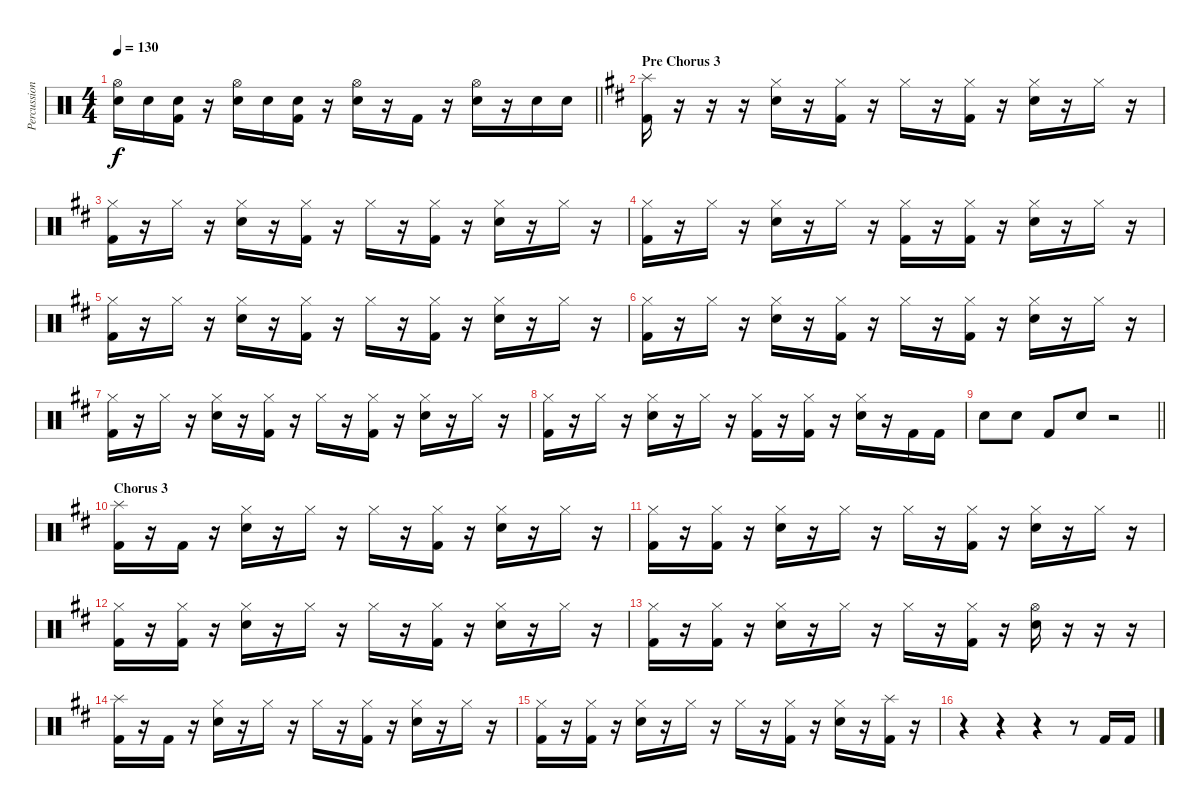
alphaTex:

\track ("Percussioni" "Percussion") {instrument percussion}
\staff {score}
\articulation defaults
\ts (4 4)
\tempo 130
\clef neutral
\barLineRight lightlight
\ks c
("Snare (hit) 2" "Hi-Hat (open)").16{dy f} "Snare (hit) 2".16 ("Snare (hit) 2" "Kick (hit) 2").16 r.16 ("Snare (hit) 2" "Hi-Hat (open)").16 "Snare (hit) 2".16 ("Snare (hit) 2" "Kick (hit) 2").16 r.16 ("Snare (hit) 2" "Hi-Hat (open)").16 r.16 "Kick (hit) 2".16 r.16 ("Snare (hit) 2" "Hi-Hat (open)").16 r.16 "Snare (hit) 2".16 "Snare (hit) 2".16 |
\section ("" "Pre Chorus 3")
\ks d
("Kick (hit) 2" "Splash (hit)").16 r.16 r.16 r.16 ("Snare (hit) 2" "Hi-Hat (closed)").16 r.16 ("Kick (hit) 2" "Hi-Hat (closed)").16 r.16 "Hi-Hat (closed)".16 r.16 ("Kick (hit) 2" "Hi-Hat (closed)").16 r.16 ("Snare (hit) 2" "Hi-Hat (closed)").16 r.16 "Hi-Hat (closed)".16 r.16 |
("Kick (hit) 2" "Hi-Hat (closed)").16 r.16 "Hi-Hat (closed)".16 r.16 ("Snare (hit) 2" "Hi-Hat (closed)").16 r.16 ("Kick (hit) 2" "Hi-Hat (closed)").16 r.16 "Hi-Hat (closed)".16 r.16 ("Kick (hit) 2" "Hi-Hat (closed)").16 r.16 ("Snare (hit) 2" "Hi-Hat (closed)").16 r.16 "Hi-Hat (closed)".16 r.16 |
("Kick (hit) 2" "Hi-Hat (closed)").16 r.16 "Hi-Hat (closed)".16 r.16 ("Snare (hit) 2" "Hi-Hat (closed)").16 r.16 "Hi-Hat (closed)".16 r.16 ("Kick (hit) 2" "Hi-Hat (closed)").16 r.16 ("Kick (hit) 2" "Hi-Hat (closed)").16 r.16 ("Snare (hit) 2" "Hi-Hat (closed)").16 r.16 "Hi-Hat (closed)".16 r.16 |
("Kick (hit) 2" "Hi-Hat (closed)").16 r.16 "Hi-Hat (closed)".16 r.16 ("Snare (hit) 2" "Hi-Hat (closed)").16 r.16 ("Kick (hit) 2" "Hi-Hat (closed)").16 r.16 "Hi-Hat (closed)".16 r.16 ("Kick (hit) 2" "Hi-Hat (closed)").16 r.16 ("Snare (hit) 2" "Hi-Hat (closed)").16 r.16 "Hi-Hat (closed)".16 r.16 |
("Kick (hit) 2" "Hi-Hat (closed)").16 r.16 "Hi-Hat (closed)".16 r.16 ("Snare (hit) 2" "Hi-Hat (closed)").16 r.16 ("Kick (hit) 2" "Hi-Hat (closed)").16 r.16 "Hi-Hat (closed)".16 r.16 ("Kick (hit) 2" "Hi-Hat (closed)").16 r.16 ("Snare (hit) 2" "Hi-Hat (closed)").16 r.16 "Hi-Hat (closed)".16 r.16 |
("Kick (hit) 2" "Hi-Hat (closed)").16 r.16 "Hi-Hat (closed)".16 r.16 ("Snare (hit) 2" "Hi-Hat (closed)").16 r.16 ("Kick (hit) 2" "Hi-Hat (closed)").16 r.16 "Hi-Hat (closed)".16 r.16 ("Kick (hit) 2" "Hi-Hat (closed)").16 r.16 ("Snare (hit) 2" "Hi-Hat (closed)").16 r.16 "Hi-Hat (closed)".16 r.16 |
("Kick (hit) 2" "Hi-Hat (closed)").16 r.16 "Hi-Hat (closed)".16 r.16 ("Snare (hit) 2" "Hi-Hat (closed)").16 r.16 "Hi-Hat (closed)".16 r.16 ("Kick (hit) 2" "Hi-Hat (closed)").16 r.16 ("Kick (hit) 2" "Hi-Hat (closed)").16 r.16 ("Snare (hit) 2" "Hi-Hat (closed)").16 r.16 "Kick (hit) 2".16 "Kick (hit) 2".16 |
\barLineRight lightlight "Snare (hit) 2".8 "Snare (hit) 2".8 "Kick (hit) 2".8 "Snare (hit) 2".8
r.2 |
\section ("" "Chorus 3")
("Kick (hit) 2" "Splash (hit)").16 r.16 "Kick (hit) 2".16 r.16 ("Snare (hit) 2" "Hi-Hat (closed)").16 r.16 "Hi-Hat (closed)".16 r.16 "Hi-Hat (closed)".16 r.16 ("Kick (hit) 2" "Hi-Hat (closed)").16 r.16 ("Snare (hit) 2" "Hi-Hat (closed)").16 r.16 "Hi-Hat (closed)".16 r.16 |
("Kick (hit) 2" "Hi-Hat (closed)").16 r.16 ("Kick (hit) 2" "Hi-Hat (closed)").16 r.16 ("Snare (hit) 2" "Hi-Hat (closed)").16 r.16 "Hi-Hat (closed)".16 r.16 "Hi-Hat (closed)".16 r.16 ("Kick (hit) 2" "Hi-Hat (closed)").16 r.16 ("Snare (hit) 2" "Hi-Hat (closed)").16 r.16 "Hi-Hat (closed)".16 r.16 |
("Kick (hit) 2" "Hi-Hat (closed)").16 r.16 ("Kick (hit) 2" "Hi-Hat (closed)").16 r.16 ("Snare (hit) 2" "Hi-Hat (closed)").16 r.16 "Hi-Hat (closed)".16 r.16 "Hi-Hat (closed)".16 r.16 ("Kick (hit) 2" "Hi-Hat (closed)").16 r.16 ("Snare (hit) 2" "Hi-Hat (closed)").16 r.16 "Hi-Hat (closed)".16 r.16 |
("Kick (hit) 2" "Hi-Hat (closed)").16 r.16 ("Kick (hit) 2" "Hi-Hat (closed)").16 r.16 ("Snare (hit) 2" "Hi-Hat (closed)").16 r.16 "Hi-Hat (closed)".16 r.16 "Hi-Hat (closed)".16 r.16 ("Kick (hit) 2" "Hi-Hat (closed)").16 r.16 ("Snare (hit) 2" "Hi-Hat (open)").16 r.16 r.16 r.16 |
("Kick (hit) 2" "Splash (hit)").16 r.16 "Kick (hit) 2".16 r.16 ("Snare (hit) 2" "Hi-Hat (closed)").16 r.16 "Hi-Hat (closed)".16 r.16 "Hi-Hat (closed)".16 r.16 ("Kick (hit) 2" "Hi-Hat (closed)").16 r.16 ("Snare (hit) 2" "Hi-Hat (closed)").16 r.16 "Hi-Hat (closed)".16 r.16 |
("Kick (hit) 2" "Hi-Hat (closed)").16 r.16 ("Kick (hit) 2" "Hi-Hat (closed)").16 r.16 ("Snare (hit) 2" "Hi-Hat (closed)").16 r.16 "Hi-Hat (closed)".16 r.16 "Hi-Hat (closed)".16 r.16 ("Kick (hit) 2" "Hi-Hat (closed)").16 r.16 ("Snare (hit) 2" "Hi-Hat (closed)").16 r.16 ("Kick (hit) 2" "Splash (hit)").16 r.16 |
r.4 r.4 r.4 r.8 "Kick (hit) 2".16 "Kick (hit) 2".16
